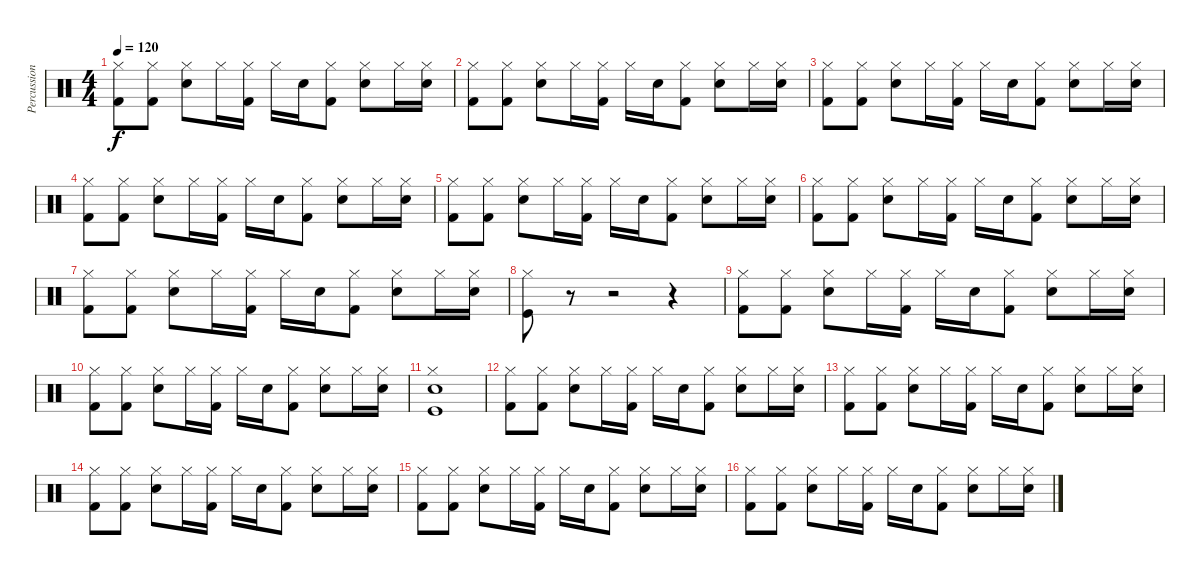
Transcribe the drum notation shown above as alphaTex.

\track ("Percussion" "Percussion") {instrument percussion}
\staff {score}
\articulation defaults
\ts (4 4)
\tempo 120
\clef neutral
\ks c
("Hi-Hat (closed)" "Kick (hit) 2").8{dy f} ("Hi-Hat (closed)" "Kick (hit) 2").8 ("Hi-Hat (closed)" "Snare (hit) 2").8 "Hi-Hat (closed)".16 ("Hi-Hat (closed)" "Kick (hit) 2").16 "Hi-Hat (closed)".16 "Snare (hit) 2".16 ("Hi-Hat (closed)" "Kick (hit) 2").8 ("Hi-Hat (closed)" "Snare (hit) 2").8 "Hi-Hat (closed)".16 ("Hi-Hat (closed)" "Snare (hit) 2").16 |
("Hi-Hat (closed)" "Kick (hit) 2").8 ("Hi-Hat (closed)" "Kick (hit) 2").8 ("Hi-Hat (closed)" "Snare (hit) 2").8 "Hi-Hat (closed)".16 ("Hi-Hat (closed)" "Kick (hit) 2").16 "Hi-Hat (closed)".16 "Snare (hit) 2".16 ("Hi-Hat (closed)" "Kick (hit) 2").8 ("Hi-Hat (closed)" "Snare (hit) 2").8 "Hi-Hat (closed)".16 ("Hi-Hat (closed)" "Snare (hit) 2").16 |
("Hi-Hat (closed)" "Kick (hit) 2").8 ("Hi-Hat (closed)" "Kick (hit) 2").8 ("Hi-Hat (closed)" "Snare (hit) 2").8 "Hi-Hat (closed)".16 ("Hi-Hat (closed)" "Kick (hit) 2").16 "Hi-Hat (closed)".16 "Snare (hit) 2".16 ("Hi-Hat (closed)" "Kick (hit) 2").8 ("Hi-Hat (closed)" "Snare (hit) 2").8 "Hi-Hat (closed)".16 ("Hi-Hat (closed)" "Snare (hit) 2").16 |
("Hi-Hat (closed)" "Kick (hit) 2").8 ("Hi-Hat (closed)" "Kick (hit) 2").8 ("Hi-Hat (closed)" "Snare (hit) 2").8 "Hi-Hat (closed)".16 ("Hi-Hat (closed)" "Kick (hit) 2").16 "Hi-Hat (closed)".16 "Snare (hit) 2".16 ("Hi-Hat (closed)" "Kick (hit) 2").8 ("Hi-Hat (closed)" "Snare (hit) 2").8 "Hi-Hat (closed)".16 ("Hi-Hat (closed)" "Snare (hit) 2").16 |
("Hi-Hat (closed)" "Kick (hit) 2").8 ("Hi-Hat (closed)" "Kick (hit) 2").8 ("Hi-Hat (closed)" "Snare (hit) 2").8 "Hi-Hat (closed)".16 ("Hi-Hat (closed)" "Kick (hit) 2").16 "Hi-Hat (closed)".16 "Snare (hit) 2".16 ("Hi-Hat (closed)" "Kick (hit) 2").8 ("Hi-Hat (closed)" "Snare (hit) 2").8 "Hi-Hat (closed)".16 ("Hi-Hat (closed)" "Snare (hit) 2").16 |
("Hi-Hat (closed)" "Kick (hit) 2").8 ("Hi-Hat (closed)" "Kick (hit) 2").8 ("Hi-Hat (closed)" "Snare (hit) 2").8 "Hi-Hat (closed)".16 ("Hi-Hat (closed)" "Kick (hit) 2").16 "Hi-Hat (closed)".16 "Snare (hit) 2".16 ("Hi-Hat (closed)" "Kick (hit) 2").8 ("Hi-Hat (closed)" "Snare (hit) 2").8 "Hi-Hat (closed)".16 ("Hi-Hat (closed)" "Snare (hit) 2").16 |
("Hi-Hat (closed)" "Kick (hit) 2").8 ("Hi-Hat (closed)" "Kick (hit) 2").8 ("Hi-Hat (closed)" "Snare (hit) 2").8 "Hi-Hat (closed)".16 ("Hi-Hat (closed)" "Kick (hit) 2").16 "Hi-Hat (closed)".16 "Snare (hit) 2".16 ("Hi-Hat (closed)" "Kick (hit) 2").8 ("Hi-Hat (closed)" "Snare (hit) 2").8 "Hi-Hat (closed)".16 ("Hi-Hat (closed)" "Snare (hit) 2").16 |
("Hi-Hat (closed)" "Kick (hit)").8 r.8 r.2 r.4 |
("Hi-Hat (closed)" "Kick (hit) 2").8 ("Hi-Hat (closed)" "Kick (hit) 2").8 ("Hi-Hat (closed)" "Snare (hit) 2").8 "Hi-Hat (closed)".16 ("Hi-Hat (closed)" "Kick (hit) 2").16 "Hi-Hat (closed)".16 "Snare (hit) 2".16 ("Hi-Hat (closed)" "Kick (hit) 2").8 ("Hi-Hat (closed)" "Snare (hit) 2").8 "Hi-Hat (closed)".16 ("Hi-Hat (closed)" "Snare (hit) 2").16 |
("Hi-Hat (closed)" "Kick (hit) 2").8 ("Hi-Hat (closed)" "Kick (hit) 2").8 ("Hi-Hat (closed)" "Snare (hit) 2").8 "Hi-Hat (closed)".16 ("Hi-Hat (closed)" "Kick (hit) 2").16 "Hi-Hat (closed)".16 "Snare (hit) 2".16 ("Hi-Hat (closed)" "Kick (hit) 2").8 ("Hi-Hat (closed)" "Snare (hit) 2").8 "Hi-Hat (closed)".16 ("Hi-Hat (closed)" "Snare (hit) 2").16 |
("Hi-Hat (closed)" "Electric Snare (hit)" "Kick (hit)").1 |
("Hi-Hat (closed)" "Kick (hit) 2").8 ("Hi-Hat (closed)" "Kick (hit) 2").8 ("Hi-Hat (closed)" "Snare (hit) 2").8 "Hi-Hat (closed)".16 ("Hi-Hat (closed)" "Kick (hit) 2").16 "Hi-Hat (closed)".16 "Snare (hit) 2".16 ("Hi-Hat (closed)" "Kick (hit) 2").8 ("Hi-Hat (closed)" "Snare (hit) 2").8 "Hi-Hat (closed)".16 ("Hi-Hat (closed)" "Snare (hit) 2").16 |
("Hi-Hat (closed)" "Kick (hit) 2").8 ("Hi-Hat (closed)" "Kick (hit) 2").8 ("Hi-Hat (closed)" "Snare (hit) 2").8 "Hi-Hat (closed)".16 ("Hi-Hat (closed)" "Kick (hit) 2").16 "Hi-Hat (closed)".16 "Snare (hit) 2".16 ("Hi-Hat (closed)" "Kick (hit) 2").8 ("Hi-Hat (closed)" "Snare (hit) 2").8 "Hi-Hat (closed)".16 ("Hi-Hat (closed)" "Snare (hit) 2").16 |
("Hi-Hat (closed)" "Kick (hit) 2").8 ("Hi-Hat (closed)" "Kick (hit) 2").8 ("Hi-Hat (closed)" "Snare (hit) 2").8 "Hi-Hat (closed)".16 ("Hi-Hat (closed)" "Kick (hit) 2").16 "Hi-Hat (closed)".16 "Snare (hit) 2".16 ("Hi-Hat (closed)" "Kick (hit) 2").8 ("Hi-Hat (closed)" "Snare (hit) 2").8 "Hi-Hat (closed)".16 ("Hi-Hat (closed)" "Snare (hit) 2").16 |
("Hi-Hat (closed)" "Kick (hit) 2").8 ("Hi-Hat (closed)" "Kick (hit) 2").8 ("Hi-Hat (closed)" "Snare (hit) 2").8 "Hi-Hat (closed)".16 ("Hi-Hat (closed)" "Kick (hit) 2").16 "Hi-Hat (closed)".16 "Snare (hit) 2".16 ("Hi-Hat (closed)" "Kick (hit) 2").8 ("Hi-Hat (closed)" "Snare (hit) 2").8 "Hi-Hat (closed)".16 ("Hi-Hat (closed)" "Snare (hit) 2").16 |
("Hi-Hat (closed)" "Kick (hit) 2").8 ("Hi-Hat (closed)" "Kick (hit) 2").8 ("Hi-Hat (closed)" "Snare (hit) 2").8 "Hi-Hat (closed)".16 ("Hi-Hat (closed)" "Kick (hit) 2").16 "Hi-Hat (closed)".16 "Snare (hit) 2".16 ("Hi-Hat (closed)" "Kick (hit) 2").8 ("Hi-Hat (closed)" "Snare (hit) 2").8 "Hi-Hat (closed)".16 ("Hi-Hat (closed)" "Snare (hit) 2").16
